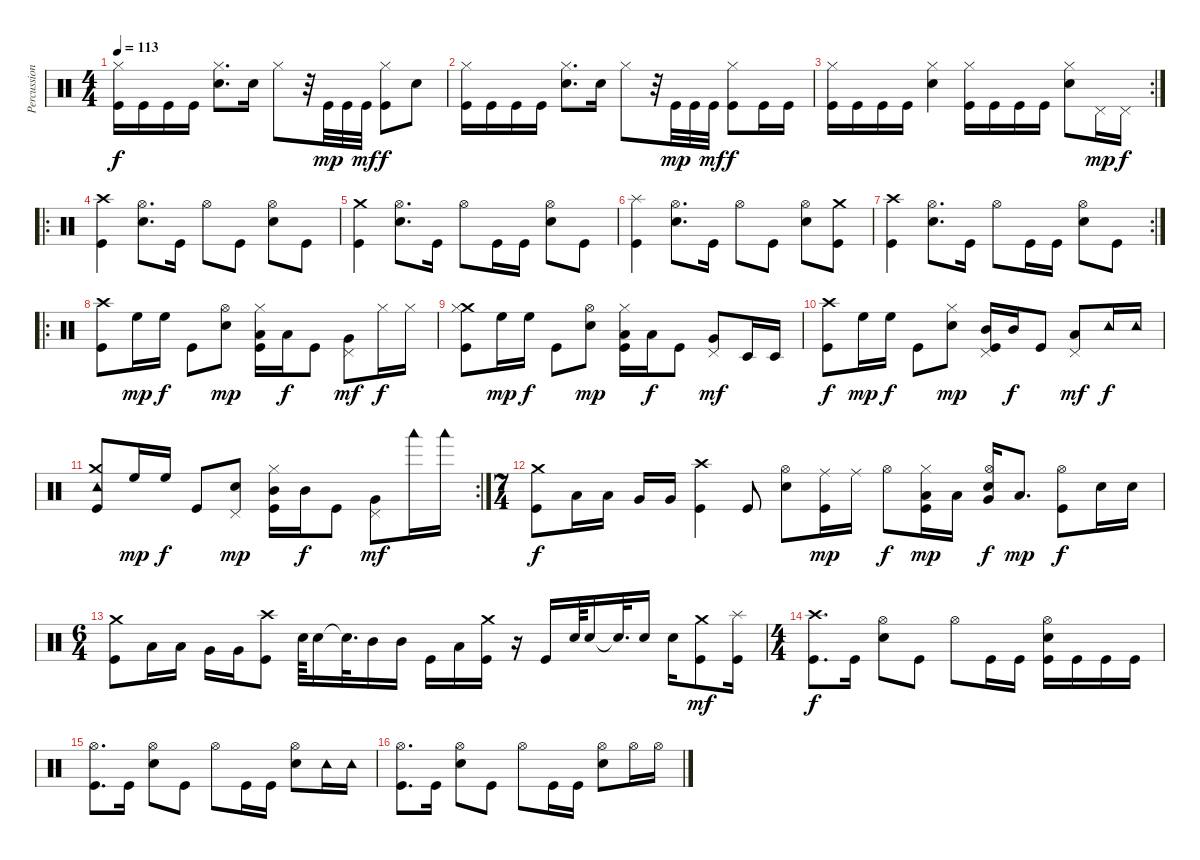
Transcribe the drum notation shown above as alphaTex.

\track ("Percussioni" "Percussion") {instrument percussion}
\staff {score}
\articulation defaults
\ts (4 4)
\tempo 113
\clef neutral
\ks c
("Hi-Hat (closed)" "Kick (hit)").16{dy f} "Kick (hit)".16 "Kick (hit)".16 "Kick (hit)".16 ("Hi-Hat (closed)" "Snare (hit) 2").8{d} "Snare (hit) 2".16 "Hi-Hat (closed)".8 r.32 "Kick (hit)".32{dy mp} "Kick (hit)".32 "Kick (hit)".32{dy mf} ("Hi-Hat (closed)" "Kick (hit)").8{dy f} "Snare (hit) 2".8 |
("Hi-Hat (closed)" "Kick (hit)").16 "Kick (hit)".16 "Kick (hit)".16 "Kick (hit)".16 ("Hi-Hat (closed)" "Snare (hit) 2").8{d} "Snare (hit) 2".16 "Hi-Hat (closed)".8 r.32 "Kick (hit)".32{dy mp} "Kick (hit)".32 "Kick (hit)".32{dy mf} ("Hi-Hat (closed)" "Kick (hit)").8{dy f} "Kick (hit)".16 "Kick (hit)".16 |
\rc 2
("Hi-Hat (closed)" "Kick (hit)").16 "Kick (hit)".16 "Kick (hit)".16 "Kick (hit)".16 ("Hi-Hat (closed)" "Snare (hit) 2").4 ("Hi-Hat (closed)" "Kick (hit)").16 "Kick (hit)".16 "Kick (hit)".16 "Kick (hit)".16 ("Hi-Hat (closed)" "Snare (hit) 2").8 "Pedal Hi-Hat (hit)".16{dy mp} "Pedal Hi-Hat (hit)".16{dy f} |
\ro
("Crash high (hit)" "Kick (hit)").4 ("Hi-Hat (open)" "Snare (hit) 2").8{d} "Kick (hit)".16 "Hi-Hat (open)".8 "Kick (hit)".8 ("Hi-Hat (open)" "Snare (hit) 2").8 "Kick (hit)".8 |
("Crash medium (hit)" "Kick (hit)").4 ("Hi-Hat (open)" "Snare (hit) 2").8{d} "Kick (hit)".16 "Hi-Hat (open)".8 "Kick (hit)".16 "Kick (hit)".16 ("Hi-Hat (open)" "Snare (hit) 2").8 "Kick (hit)".8 |
("Splash (hit)" "Kick (hit)").4 ("Hi-Hat (open)" "Snare (hit) 2").8{d} "Kick (hit)".16 "Hi-Hat (open)".8 "Kick (hit)".8 ("Hi-Hat (open)" "Snare (hit) 2").8 ("Crash medium (hit)" "Kick (hit)").8 |
\rc 2
("Crash high (hit)" "Kick (hit)").4 ("Hi-Hat (open)" "Snare (hit) 2").8{d} "Kick (hit)".16 "Hi-Hat (open)".8 "Kick (hit)".16 "Kick (hit)".16 ("Hi-Hat (open)" "Snare (hit) 2").8 "Kick (hit)".8 |
\ro
("Crash high (hit)" "Kick (hit)").8 "High Floor Tom (hit)".16{dy mp} "High Floor Tom (hit)".16{dy f} "Kick (hit)".8 ("Hi-Hat (open)" "Snare (hit) 2").8{dy mp} ("Low Tom (hit)" "Hi-Hat (closed)" "Kick (hit)").16 "Low Tom (hit)".16{dy f} "Kick (hit)".8 ("Very Low Tom (hit)" "Pedal Hi-Hat (hit)").8{dy mf} "Hi-Hat (closed)".16{dy f} "Hi-Hat (closed)".16 |
("Crash medium (hit)" "Hi-Hat (closed)" "Kick (hit)").8 "High Floor Tom (hit)".16{dy mp} "High Floor Tom (hit)".16{dy f} "Kick (hit)".8 ("Hi-Hat (open)" "Snare (hit) 2").8{dy mp} ("Low Tom (hit)" "Hi-Hat (closed)" "Kick (hit)").16 "Low Tom (hit)".16{dy f} "Kick (hit)".8 ("Very Low Tom (hit)" "Pedal Hi-Hat (hit)").8{dy mf} "Timbale low (hit)".16 "Timbale low (hit)".16 |
("Crash high (hit)" "Kick (hit)").8{dy f} "High Floor Tom (hit)".16{dy mp} "High Floor Tom (hit)".16{dy f} "Kick (hit)".8 ("Hi-Hat (closed)" "Snare (hit) 2").8{dy mp} ("Mid Tom (hit)" "Pedal Hi-Hat (hit)" "Kick (hit)").16 "Mid Tom (hit)".16{dy f} "Kick (hit)".8 ("Low Tom (hit)" "Pedal Hi-Hat (hit)").8{dy mf} "Tambourine (hit)".16{dy f} "Tambourine (hit)".16 |
\rc 2
("Crash medium (hit)" "Tambourine (hit)" "Kick (hit)").8 "High Floor Tom (hit)".16{dy mp} "High Floor Tom (hit)".16{dy f} "Kick (hit)".8 ("Pedal Hi-Hat (hit)" "Snare (hit) 2").8{dy mp} ("Mid Tom (hit)" "Hi-Hat (closed)" "Kick (hit)").16 "Mid Tom (hit)".16{dy f} "Kick (hit)".8 ("Very Low Tom (hit)" "Pedal Hi-Hat (hit)").8{dy mf} "Woodblock low (hit)".16 "Woodblock low (hit)".16 |
\ts (7 4)
("Crash medium (hit)" "Kick (hit)").8{dy f} "Low Tom (hit)".16 "Low Tom (hit)".16 "Very Low Tom (hit)".16 "Very Low Tom (hit)".16 ("Crash high (hit)" "Kick (hit)").4 "Kick (hit)".8 ("Hi-Hat (open)" "Snare (hit) 2").8 ("Ride (middle)" "Kick (hit)").16{dy mp} "Ride (middle)".16 "Hi-Hat (open)".8{dy f} ("Low Tom (hit)" "Hi-Hat (closed)" "Kick (hit)").16{dy mp} "Low Tom (hit)".16 ("Very Low Tom (hit)" "Hi-Hat (open)" "Snare (hit) 2").16{dy f} "Low Floor Tom (hit)".8{d dy mp} ("Hi-Hat (open)" "Kick (hit)").8{dy f} "Snare (hit) 2".16 "Snare (hit) 2".16 |
\ts (6 4)
("Crash medium (hit)" "Kick (hit)").8 "Low Tom (hit)".16 "Low Tom (hit)".16 "Very Low Tom (hit)".16 "Very Low Tom (hit)".16 ("Crash high (hit)" "Kick (hit)").8 "Snare (hit) 2".64 "Snare (hit) 2".16 "Snare (hit)"{t}.32{d} "Mid Tom (hit)".16 "Mid Tom (hit)".16 "Kick (hit)".16 "Low Tom (hit)".16 ("Crash medium (hit)" "Kick (hit)").16 r.16 "Kick (hit)".16 "Snare (hit) 2".64 "Snare (hit) 2".16 "Snare (hit)"{t}.32{d} "Snare (hit) 2".16 "Snare (hit) 2".16 ("Crash medium (hit)" "Kick (hit)").8{dy mf} ("Splash (hit)" "Kick (hit)").16 |
\ts (4 4)
("Crash high (hit)" "Kick (hit)").8{d dy f} "Kick (hit)".16 ("Hi-Hat (open)" "Snare (hit) 2").8 "Kick (hit)".8 "Hi-Hat (open)".8 "Kick (hit)".16 "Kick (hit)".16 ("Hi-Hat (open)" "Snare (hit) 2" "Kick (hit)").16 "Kick (hit)".16 "Kick (hit)".16 "Kick (hit)".16 |
("Hi-Hat (open)" "Kick (hit)").8{d} "Kick (hit)".16 ("Hi-Hat (open)" "Snare (hit) 2").8 "Kick (hit)".8 "Hi-Hat (open)".8 "Kick (hit)".16 "Kick (hit)".16 ("Hi-Hat (open)" "Snare (hit) 2").8 "Tambourine (hit)".16 "Tambourine (hit)".16 |
("Hi-Hat (open)" "Kick (hit)").8{d} "Kick (hit)".16 ("Hi-Hat (open)" "Snare (hit) 2").8 "Kick (hit)".8 "Hi-Hat (open)".8 "Kick (hit)".16 "Kick (hit)".16 ("Hi-Hat (open)" "Snare (hit) 2").8 "Hi-Hat (open)".16 "Hi-Hat (open)".16
